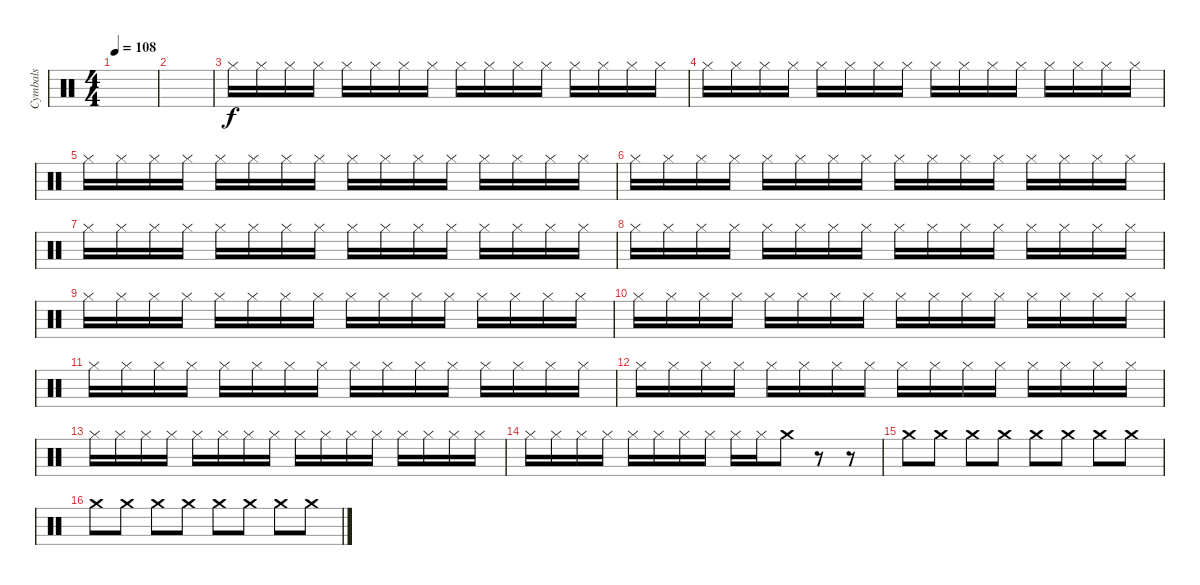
\track ("Cymbals" "Cymbals") {instrument percussion}
\staff {score}
\articulation defaults
\ts (4 4)
\tempo 108
\clef neutral
\ks c
|
|
"Hi-Hat (closed)".16 "Hi-Hat (closed)".16 "Hi-Hat (closed)".16 "Hi-Hat (closed)".16 "Hi-Hat (closed)".16 "Hi-Hat (closed)".16 "Hi-Hat (closed)".16 "Hi-Hat (closed)".16 "Hi-Hat (closed)".16 "Hi-Hat (closed)".16 "Hi-Hat (closed)".16 "Hi-Hat (closed)".16 "Hi-Hat (closed)".16 "Hi-Hat (closed)".16 "Hi-Hat (closed)".16 "Hi-Hat (closed)".16 |
"Hi-Hat (closed)".16 "Hi-Hat (closed)".16 "Hi-Hat (closed)".16 "Hi-Hat (closed)".16 "Hi-Hat (closed)".16 "Hi-Hat (closed)".16 "Hi-Hat (closed)".16 "Hi-Hat (closed)".16 "Hi-Hat (closed)".16 "Hi-Hat (closed)".16 "Hi-Hat (closed)".16 "Hi-Hat (closed)".16 "Hi-Hat (closed)".16 "Hi-Hat (closed)".16 "Hi-Hat (closed)".16 "Hi-Hat (closed)".16 |
"Hi-Hat (closed)".16 "Hi-Hat (closed)".16 "Hi-Hat (closed)".16 "Hi-Hat (closed)".16 "Hi-Hat (closed)".16 "Hi-Hat (closed)".16 "Hi-Hat (closed)".16 "Hi-Hat (closed)".16 "Hi-Hat (closed)".16 "Hi-Hat (closed)".16 "Hi-Hat (closed)".16 "Hi-Hat (closed)".16 "Hi-Hat (closed)".16 "Hi-Hat (closed)".16 "Hi-Hat (closed)".16 "Hi-Hat (closed)".16 |
"Hi-Hat (closed)".16 "Hi-Hat (closed)".16 "Hi-Hat (closed)".16 "Hi-Hat (closed)".16 "Hi-Hat (closed)".16 "Hi-Hat (closed)".16 "Hi-Hat (closed)".16 "Hi-Hat (closed)".16 "Hi-Hat (closed)".16 "Hi-Hat (closed)".16 "Hi-Hat (closed)".16 "Hi-Hat (closed)".16 "Hi-Hat (closed)".16 "Hi-Hat (closed)".16 "Hi-Hat (closed)".16 "Hi-Hat (closed)".16 |
"Hi-Hat (closed)".16 "Hi-Hat (closed)".16 "Hi-Hat (closed)".16 "Hi-Hat (closed)".16 "Hi-Hat (closed)".16 "Hi-Hat (closed)".16 "Hi-Hat (closed)".16 "Hi-Hat (closed)".16 "Hi-Hat (closed)".16 "Hi-Hat (closed)".16 "Hi-Hat (closed)".16 "Hi-Hat (closed)".16 "Hi-Hat (closed)".16 "Hi-Hat (closed)".16 "Hi-Hat (closed)".16 "Hi-Hat (closed)".16 |
"Hi-Hat (closed)".16 "Hi-Hat (closed)".16 "Hi-Hat (closed)".16 "Hi-Hat (closed)".16 "Hi-Hat (closed)".16 "Hi-Hat (closed)".16 "Hi-Hat (closed)".16 "Hi-Hat (closed)".16 "Hi-Hat (closed)".16 "Hi-Hat (closed)".16 "Hi-Hat (closed)".16 "Hi-Hat (closed)".16 "Hi-Hat (closed)".16 "Hi-Hat (closed)".16 "Hi-Hat (closed)".16 "Hi-Hat (closed)".16 |
"Hi-Hat (closed)".16 "Hi-Hat (closed)".16 "Hi-Hat (closed)".16 "Hi-Hat (closed)".16 "Hi-Hat (closed)".16 "Hi-Hat (closed)".16 "Hi-Hat (closed)".16 "Hi-Hat (closed)".16 "Hi-Hat (closed)".16 "Hi-Hat (closed)".16 "Hi-Hat (closed)".16 "Hi-Hat (closed)".16 "Hi-Hat (closed)".16 "Hi-Hat (closed)".16 "Hi-Hat (closed)".16 "Hi-Hat (closed)".16 |
"Hi-Hat (closed)".16 "Hi-Hat (closed)".16 "Hi-Hat (closed)".16 "Hi-Hat (closed)".16 "Hi-Hat (closed)".16 "Hi-Hat (closed)".16 "Hi-Hat (closed)".16 "Hi-Hat (closed)".16 "Hi-Hat (closed)".16 "Hi-Hat (closed)".16 "Hi-Hat (closed)".16 "Hi-Hat (closed)".16 "Hi-Hat (closed)".16 "Hi-Hat (closed)".16 "Hi-Hat (closed)".16 "Hi-Hat (closed)".16 |
"Hi-Hat (closed)".16 "Hi-Hat (closed)".16 "Hi-Hat (closed)".16 "Hi-Hat (closed)".16 "Hi-Hat (closed)".16 "Hi-Hat (closed)".16 "Hi-Hat (closed)".16 "Hi-Hat (closed)".16 "Hi-Hat (closed)".16 "Hi-Hat (closed)".16 "Hi-Hat (closed)".16 "Hi-Hat (closed)".16 "Hi-Hat (closed)".16 "Hi-Hat (closed)".16 "Hi-Hat (closed)".16 "Hi-Hat (closed)".16 |
"Hi-Hat (closed)".16 "Hi-Hat (closed)".16 "Hi-Hat (closed)".16 "Hi-Hat (closed)".16 "Hi-Hat (closed)".16 "Hi-Hat (closed)".16 "Hi-Hat (closed)".16 "Hi-Hat (closed)".16 "Hi-Hat (closed)".16 "Hi-Hat (closed)".16 "Hi-Hat (closed)".16 "Hi-Hat (closed)".16 "Hi-Hat (closed)".16 "Hi-Hat (closed)".16 "Hi-Hat (closed)".16 "Hi-Hat (closed)".16 |
"Hi-Hat (closed)".16 "Hi-Hat (closed)".16 "Hi-Hat (closed)".16 "Hi-Hat (closed)".16 "Hi-Hat (closed)".16 "Hi-Hat (closed)".16 "Hi-Hat (closed)".16 "Hi-Hat (closed)".16 "Hi-Hat (closed)".16 "Hi-Hat (closed)".16 "Hi-Hat (closed)".16 "Hi-Hat (closed)".16 "Hi-Hat (closed)".16 "Hi-Hat (closed)".16 "Hi-Hat (closed)".16 "Hi-Hat (closed)".16 |
"Hi-Hat (closed)".16 "Hi-Hat (closed)".16 "Hi-Hat (closed)".16 "Hi-Hat (closed)".16 "Hi-Hat (closed)".16 "Hi-Hat (closed)".16 "Hi-Hat (closed)".16 "Hi-Hat (closed)".16 "Hi-Hat (closed)".16 "Hi-Hat (closed)".16 "Crash medium (hit)".8 r.8 r.8 |
"Crash medium (hit)".8 "Crash medium (hit)".8 "Crash medium (hit)".8 "Crash medium (hit)".8 "Crash medium (hit)".8 "Crash medium (hit)".8 "Crash medium (hit)".8 "Crash medium (hit)".8 |
"Crash medium (hit)".8 "Crash medium (hit)".8 "Crash medium (hit)".8 "Crash medium (hit)".8 "Crash medium (hit)".8 "Crash medium (hit)".8 "Crash medium (hit)".8 "Crash medium (hit)".8
